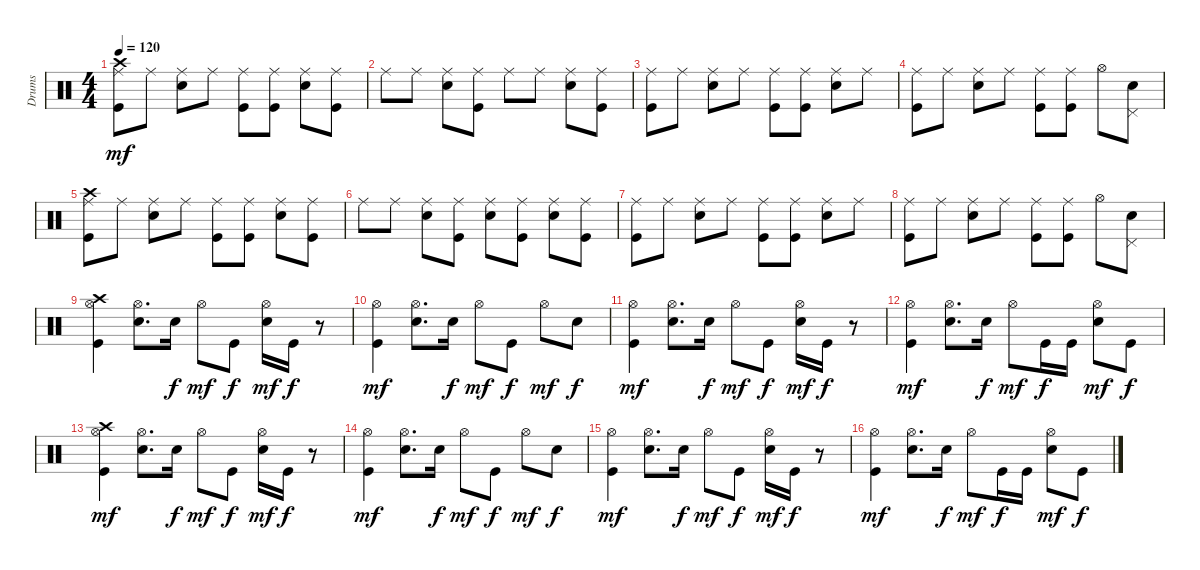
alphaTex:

\track ("Drums" "Drums") {instrument percussion}
\staff {score}
\articulation defaults
\ts (4 4)
\tempo 120
\clef neutral
\ks c
("Crash high (hit)" "Ride (middle)" "Kick (hit)").8{dy mf} "Ride (middle)".8 ("Ride (middle)" "Electric Snare (hit)").8 "Ride (middle)".8 ("Ride (middle)" "Kick (hit)").8 ("Ride (middle)" "Kick (hit)").8 ("Ride (middle)" "Electric Snare (hit)").8 ("Ride (middle)" "Kick (hit)").8 |
"Ride (middle)".8 "Ride (middle)".8 ("Ride (middle)" "Electric Snare (hit)").8 ("Ride (middle)" "Kick (hit)").8 "Ride (middle)".8 "Ride (middle)".8 ("Ride (middle)" "Electric Snare (hit)").8 ("Ride (middle)" "Kick (hit)").8 |
("Ride (middle)" "Kick (hit)").8 "Ride (middle)".8 ("Ride (middle)" "Electric Snare (hit)").8 "Ride (middle)".8 ("Ride (middle)" "Kick (hit)").8 ("Ride (middle)" "Kick (hit)").8 ("Ride (middle)" "Electric Snare (hit)").8 "Ride (middle)".8 |
("Ride (middle)" "Kick (hit)").8 "Ride (middle)".8 ("Ride (middle)" "Electric Snare (hit)").8 "Ride (middle)".8 ("Ride (middle)" "Kick (hit)").8 ("Ride (middle)" "Kick (hit)").8 "Hi-Hat (open)".8 ("Pedal Hi-Hat (hit)" "Electric Snare (hit)").8 |
("Crash high (hit)" "Ride (middle)" "Kick (hit)").8 "Ride (middle)".8 ("Ride (middle)" "Electric Snare (hit)").8 "Ride (middle)".8 ("Ride (middle)" "Kick (hit)").8 ("Ride (middle)" "Kick (hit)").8 ("Ride (middle)" "Electric Snare (hit)").8 ("Ride (middle)" "Kick (hit)").8 |
"Ride (middle)".8 "Ride (middle)".8 ("Ride (middle)" "Electric Snare (hit)").8 ("Ride (middle)" "Kick (hit)").8 ("Ride (middle)" "Electric Snare (hit)").8 ("Ride (middle)" "Kick (hit)").8 ("Ride (middle)" "Electric Snare (hit)").8 ("Ride (middle)" "Kick (hit)").8 |
("Ride (middle)" "Kick (hit)").8 "Ride (middle)".8 ("Ride (middle)" "Electric Snare (hit)").8 "Ride (middle)".8 ("Ride (middle)" "Kick (hit)").8 ("Ride (middle)" "Kick (hit)").8 ("Ride (middle)" "Electric Snare (hit)").8 "Ride (middle)".8 |
("Ride (middle)" "Kick (hit)").8 "Ride (middle)".8 ("Ride (middle)" "Electric Snare (hit)").8 "Ride (middle)".8 ("Ride (middle)" "Kick (hit)").8 ("Ride (middle)" "Kick (hit)").8 "Hi-Hat (open)".8 ("Pedal Hi-Hat (hit)" "Electric Snare (hit)").8 |
("Crash high (hit)" "Hi-Hat (open)" "Kick (hit)").4 ("Hi-Hat (open)" "Electric Snare (hit)").8{d} "Electric Snare (hit)".16{dy f} "Hi-Hat (open)".8{dy mf} "Kick (hit)".8{dy f} ("Hi-Hat (open)" "Electric Snare (hit)").16{dy mf} "Kick (hit)".16{dy f} r.8 |
("Hi-Hat (open)" "Kick (hit)").4{dy mf} ("Hi-Hat (open)" "Electric Snare (hit)").8{d} "Electric Snare (hit)".16{dy f} "Hi-Hat (open)".8{dy mf} "Kick (hit)".8{dy f} "Hi-Hat (open)".8{dy mf} "Electric Snare (hit)".8{dy f} |
("Hi-Hat (open)" "Kick (hit)").4{dy mf} ("Hi-Hat (open)" "Electric Snare (hit)").8{d} "Electric Snare (hit)".16{dy f} "Hi-Hat (open)".8{dy mf} "Kick (hit)".8{dy f} ("Hi-Hat (open)" "Electric Snare (hit)").16{dy mf} "Kick (hit)".16{dy f} r.8 |
("Hi-Hat (open)" "Kick (hit)").4{dy mf} ("Hi-Hat (open)" "Electric Snare (hit)").8{d} "Electric Snare (hit)".16{dy f} "Hi-Hat (open)".8{dy mf} "Kick (hit)".16{dy f} "Kick (hit)".16 ("Hi-Hat (open)" "Electric Snare (hit)").8{dy mf} "Kick (hit)".8{dy f} |
("Crash high (hit)" "Hi-Hat (open)" "Kick (hit)").4{dy mf} ("Hi-Hat (open)" "Electric Snare (hit)").8{d} "Electric Snare (hit)".16{dy f} "Hi-Hat (open)".8{dy mf} "Kick (hit)".8{dy f} ("Hi-Hat (open)" "Electric Snare (hit)").16{dy mf} "Kick (hit)".16{dy f} r.8 |
("Hi-Hat (open)" "Kick (hit)").4{dy mf} ("Hi-Hat (open)" "Electric Snare (hit)").8{d} "Electric Snare (hit)".16{dy f} "Hi-Hat (open)".8{dy mf} "Kick (hit)".8{dy f} "Hi-Hat (open)".8{dy mf} "Electric Snare (hit)".8{dy f} |
("Hi-Hat (open)" "Kick (hit)").4{dy mf} ("Hi-Hat (open)" "Electric Snare (hit)").8{d} "Electric Snare (hit)".16{dy f} "Hi-Hat (open)".8{dy mf} "Kick (hit)".8{dy f} ("Hi-Hat (open)" "Electric Snare (hit)").16{dy mf} "Kick (hit)".16{dy f} r.8 |
("Hi-Hat (open)" "Kick (hit)").4{dy mf} ("Hi-Hat (open)" "Electric Snare (hit)").8{d} "Electric Snare (hit)".16{dy f} "Hi-Hat (open)".8{dy mf} "Kick (hit)".16{dy f} "Kick (hit)".16 ("Hi-Hat (open)" "Electric Snare (hit)").8{dy mf} "Kick (hit)".8{dy f}
